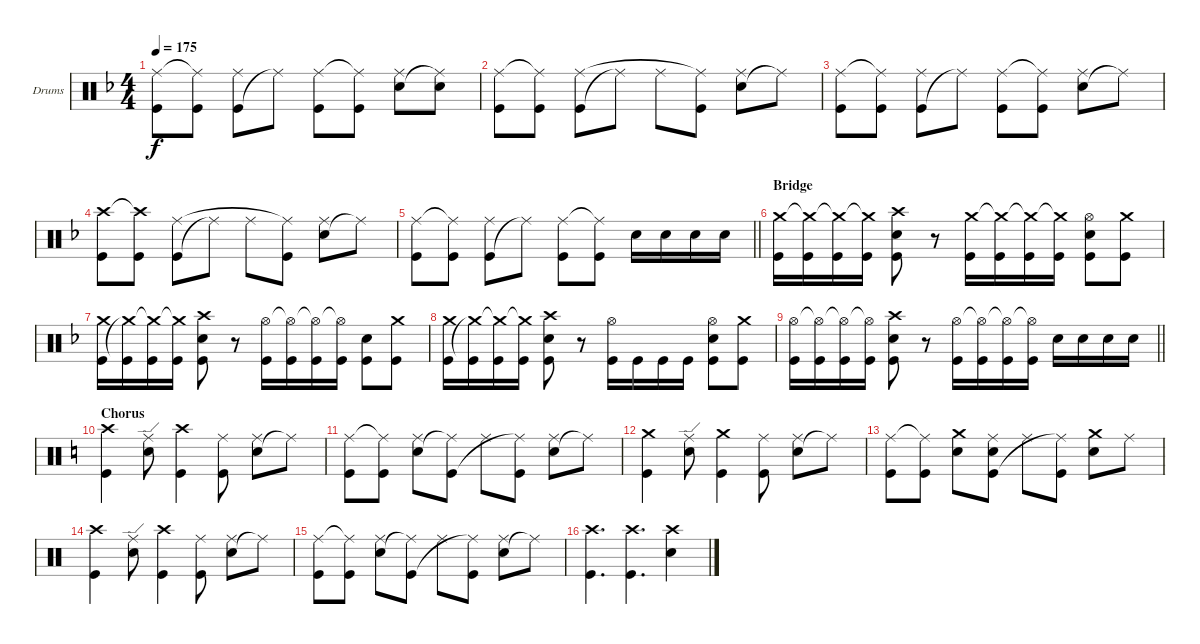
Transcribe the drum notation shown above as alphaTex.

\bracketExtendMode groupsimilarinstruments
\firstSystemTrackNameOrientation horizontal
\otherSystemsTrackNameOrientation horizontal
\track ("Drumkit" "Drums") {instrument percussion}
\staff {score}
\articulation defaults
\ts (4 4)
\tempo 175
\clef neutral
\ks f
("Kick (hit)" "Ride (middle)").8{dy f} ("Kick (hit)" "Ride (middle)"{t}).8 ("Kick (hit)" "Ride (middle)").8 "Ride (middle)"{t}.8 ("Kick (hit)" "Ride (middle)").8 ("Kick (hit)" "Ride (middle)"{t}).8 ("Snare (hit) 2" "Ride (middle)").8 ("Ride (middle)"{t} "Snare (hit) 2").8 |
("Kick (hit)" "Ride (middle)").8 ("Kick (hit)" "Ride (middle)"{t}).8 ("Kick (hit)" "Ride (middle)").8 "Ride (middle)"{t}.8 "Ride (middle)".8 ("Kick (hit)" "Ride (middle)"{t}).8 ("Snare (hit) 2" "Ride (middle)").8 "Ride (middle)"{t}.8 |
("Kick (hit)" "Ride (middle)").8 ("Kick (hit)" "Ride (middle)"{t}).8 ("Kick (hit)" "Ride (middle)").8 "Ride (middle)"{t}.8 ("Kick (hit)" "Ride (middle)").8 ("Kick (hit)" "Ride (middle)"{t}).8 ("Snare (hit) 2" "Ride (middle)").8 "Ride (middle)"{t}.8 |
("Kick (hit)" "Crash high (hit)").8 ("Kick (hit)" "Crash high (hit)"{t}).8 ("Kick (hit)" "Ride (middle)").8 "Ride (middle)"{t}.8 "Ride (middle)".8 ("Kick (hit)" "Ride (middle)"{t}).8 ("Snare (hit) 2" "Ride (middle)").8 "Ride (middle)"{t}.8 |
\barLineRight lightlight
("Kick (hit)" "Ride (middle)").8 ("Kick (hit)" "Ride (middle)"{t}).8 ("Kick (hit)" "Ride (middle)").8 "Ride (middle)"{t}.8 ("Kick (hit)" "Ride (middle)").8 ("Kick (hit)" "Ride (middle)"{t}).8 "Snare (hit) 2".16 "Snare (hit) 2".16 "Snare (hit) 2".16 "Snare (hit) 2".16 |
\section ("" "Bridge")
("Kick (hit)" "Crash medium (hit)").16 ("Kick (hit)" "Crash medium (hit)"{t}).16 ("Kick (hit)" "Crash medium (hit)"{t}).16 ("Kick (hit)" "Crash medium (hit)"{t}).16 ("Crash high (hit)" "Snare (hit) 2" "Kick (hit)").8 r.8 ("Kick (hit)" "Crash medium (hit)").16 ("Kick (hit)" "Crash medium (hit)"{t}).16 ("Kick (hit)" "Crash medium (hit)"{t}).16 ("Kick (hit)" "Crash medium (hit)"{t}).16 ("Snare (hit) 2" "Kick (hit)" "Hi-Hat (open)").8 ("Crash medium (hit)" "Kick (hit)").8 |
("Crash medium (hit)" "Kick (hit)").16 ("Kick (hit)" "Crash medium (hit)"{t}).16 ("Kick (hit)" "Crash medium (hit)"{t}).16 ("Kick (hit)" "Crash medium (hit)"{t}).16 ("Crash high (hit)" "Snare (hit) 2" "Kick (hit)").8 r.8 ("Kick (hit)" "Hi-Hat (open)").16 ("Kick (hit)" "Hi-Hat (open)"{t}).16 ("Kick (hit)" "Hi-Hat (open)"{t}).16 ("Kick (hit)" "Hi-Hat (open)"{t}).16 ("Snare (hit) 2" "Kick (hit)").8 ("Crash medium (hit)" "Kick (hit)").8 |
("Crash medium (hit)" "Kick (hit)").16 ("Kick (hit)" "Crash medium (hit)"{t}).16 ("Kick (hit)" "Crash medium (hit)"{t}).16 ("Kick (hit)" "Crash medium (hit)"{t}).16 ("Crash high (hit)" "Snare (hit) 2" "Kick (hit)").8 r.8 ("Kick (hit)" "Hi-Hat (open)").16 "Kick (hit)".16 "Kick (hit)".16 "Kick (hit)".16 ("Snare (hit) 2" "Kick (hit)" "Hi-Hat (open)").8 ("Crash medium (hit)" "Kick (hit)").8 |
\barLineRight lightlight
("Kick (hit)" "Hi-Hat (open)").16 ("Kick (hit)" "Hi-Hat (open)"{t}).16 ("Kick (hit)" "Hi-Hat (open)"{t}).16 ("Kick (hit)" "Hi-Hat (open)"{t}).16 ("Crash high (hit)" "Snare (hit) 2" "Kick (hit)").8 r.8 ("Kick (hit)" "Hi-Hat (open)").16 ("Kick (hit)" "Hi-Hat (open)"{t}).16 ("Kick (hit)" "Hi-Hat (open)"{t}).16 ("Kick (hit)" "Hi-Hat (open)"{t}).16 "Snare (hit) 2".16 "Snare (hit) 2".16 "Snare (hit) 2".16 "Snare (hit) 2".16 |
\section ("" "Chorus")
\ks c
("Crash high (hit)" "Kick (hit)").4 ("Ride (edge)" "Snare (hit) 2").8 ("Kick (hit)" "Crash high (hit)").4 ("Kick (hit)" "Ride (middle)").8 ("Snare (hit) 2" "Ride (middle)").8 "Ride (middle)"{t}.8 |
("Kick (hit)" "Ride (middle)").8 ("Kick (hit)" "Ride (middle)"{t}).8 ("Snare (hit) 2" "Ride (middle)").8 ("Ride (middle)"{t} "Kick (hit)").8 "Ride (middle)".8 ("Kick (hit)" "Ride (middle)"{t}).8 ("Snare (hit) 2" "Ride (middle)").8 "Ride (middle)"{t}.8 |
("Kick (hit)" "Crash medium (hit)").4 ("Ride (edge)" "Snare (hit) 2").8 ("Kick (hit)" "Crash medium (hit)").4 ("Kick (hit)" "Ride (middle)").8 ("Snare (hit) 2" "Ride (middle)").8 "Ride (middle)"{t}.8 |
("Kick (hit)" "Ride (middle)").8 ("Kick (hit)" "Ride (middle)"{t}).8 ("Snare (hit) 2" "Crash medium (hit)").8 ("Ride (middle)" "Kick (hit)" "Snare (hit) 2").8 "Ride (middle)".8 ("Kick (hit)" "Ride (middle)"{t}).8 ("Snare (hit) 2" "Crash medium (hit)").8 "Ride (middle)".8 |
("Crash high (hit)" "Kick (hit)").4 ("Ride (edge)" "Snare (hit) 2").8 ("Kick (hit)" "Crash high (hit)").4 ("Kick (hit)" "Ride (middle)").8 ("Snare (hit) 2" "Ride (middle)").8 "Ride (middle)"{t}.8 |
("Kick (hit)" "Ride (middle)").8 ("Kick (hit)" "Ride (middle)"{t}).8 ("Snare (hit) 2" "Ride (middle)").8 ("Ride (middle)"{t} "Kick (hit)").8 "Ride (middle)".8 ("Kick (hit)" "Ride (middle)"{t}).8 ("Snare (hit) 2" "Ride (middle)").8 "Ride (middle)"{t}.8 |
("Crash high (hit)" "Kick (hit)").4{d} ("Kick (hit)" "Crash high (hit)").4{d} ("Snare (hit) 2" "Crash high (hit)").4
